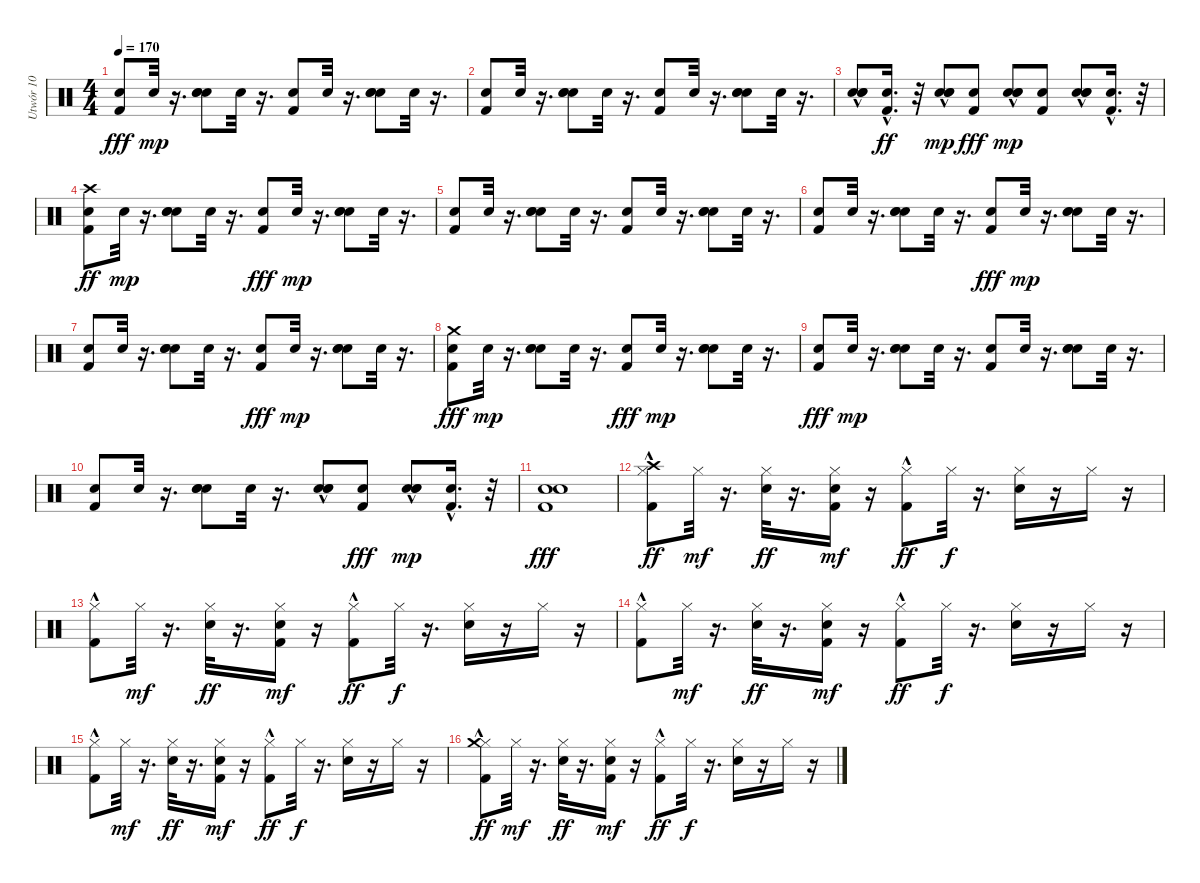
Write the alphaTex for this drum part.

\track ("Utwór 10" "Utwór 10") {instrument percussion}
\staff {score}
\articulation defaults
\ts (4 4)
\tempo 170
\clef neutral
\ks c
("Snare (hit) 2" "Kick (hit) 2").8{dy fff} "Snare (hit) 2".32{dy mp} r.16{d} ("Snare (hit) 2" "Snare (hit) 2" "Snare (hit) 2").8 "Snare (hit) 2".32 r.16{d} ("Kick (hit) 2" "Snare (hit) 2").8 "Snare (hit) 2".32 r.16{d} ("Snare (hit) 2" "Snare (hit) 2" "Snare (hit) 2").8 "Snare (hit) 2".32 r.16{d} |
("Kick (hit) 2" "Snare (hit) 2").8 "Snare (hit) 2".32 r.16{d} ("Snare (hit) 2" "Snare (hit) 2" "Snare (hit) 2").8 "Snare (hit) 2".32 r.16{d} ("Kick (hit) 2" "Snare (hit) 2").8 "Snare (hit) 2".32 r.16{d} ("Snare (hit) 2" "Snare (hit) 2" "Snare (hit) 2").8 "Snare (hit) 2".32 r.16{d} |
("Snare (hit) 2" "Snare (hit) 2" "Snare (hit) 2"{hac}).8 ("Snare (hit) 2" "Kick (hit) 2"{hac}).16{d dy ff} r.32 ("Snare (hit) 2" "Snare (hit) 2" "Snare (hit) 2"{hac}).8{dy mp} ("Snare (hit) 2" "Kick (hit) 2").8{dy fff} ("Snare (hit) 2" "Snare (hit) 2" "Snare (hit) 2"{hac}).8{dy mp} ("Kick (hit) 2" "Snare (hit) 2").8 ("Snare (hit) 2" "Snare (hit) 2" "Snare (hit) 2"{hac}).8 ("Kick (hit) 2"{hac} "Snare (hit) 2").16{d} r.32 |
("Snare (hit) 2" "Kick (hit) 2" "Crash high (hit)").8{dy ff} "Snare (hit) 2".32{dy mp} r.16{d} ("Snare (hit) 2" "Snare (hit) 2" "Snare (hit) 2").8 "Snare (hit) 2".32 r.16{d} ("Snare (hit) 2" "Kick (hit) 2").8{dy fff} "Snare (hit) 2".32{dy mp} r.16{d} ("Snare (hit) 2" "Snare (hit) 2" "Snare (hit) 2").8 "Snare (hit) 2".32 r.16{d} |
("Kick (hit) 2" "Snare (hit) 2").8 "Snare (hit) 2".32 r.16{d} ("Snare (hit) 2" "Snare (hit) 2" "Snare (hit) 2").8 "Snare (hit) 2".32 r.16{d} ("Kick (hit) 2" "Snare (hit) 2").8 "Snare (hit) 2".32 r.16{d} ("Snare (hit) 2" "Snare (hit) 2" "Snare (hit) 2").8 "Snare (hit) 2".32 r.16{d} |
("Kick (hit) 2" "Snare (hit) 2").8 "Snare (hit) 2".32 r.16{d} ("Snare (hit) 2" "Snare (hit) 2" "Snare (hit) 2").8 "Snare (hit) 2".32 r.16{d} ("Snare (hit) 2" "Kick (hit) 2").8{dy fff} "Snare (hit) 2".32{dy mp} r.16{d} ("Snare (hit) 2" "Snare (hit) 2" "Snare (hit) 2").8 "Snare (hit) 2".32 r.16{d} |
("Kick (hit) 2" "Snare (hit) 2").8 "Snare (hit) 2".32 r.16{d} ("Snare (hit) 2" "Snare (hit) 2" "Snare (hit) 2").8 "Snare (hit) 2".32 r.16{d} ("Snare (hit) 2" "Kick (hit) 2").8{dy fff} "Snare (hit) 2".32{dy mp} r.16{d} ("Snare (hit) 2" "Snare (hit) 2" "Snare (hit) 2").8 "Snare (hit) 2".32 r.16{d} |
("Crash medium (hit)" "Snare (hit) 2" "Kick (hit) 2").8{dy fff} "Snare (hit) 2".32{dy mp} r.16{d} ("Snare (hit) 2" "Snare (hit) 2" "Snare (hit) 2").8 "Snare (hit) 2".32 r.16{d} ("Snare (hit) 2" "Kick (hit) 2").8{dy fff} "Snare (hit) 2".32{dy mp} r.16{d} ("Snare (hit) 2" "Snare (hit) 2" "Snare (hit) 2").8 "Snare (hit) 2".32 r.16{d} |
("Snare (hit) 2" "Kick (hit) 2").8{dy fff} "Snare (hit) 2".32{dy mp} r.16{d} ("Snare (hit) 2" "Snare (hit) 2" "Snare (hit) 2").8 "Snare (hit) 2".32 r.16{d} ("Kick (hit) 2" "Snare (hit) 2").8 "Snare (hit) 2".32 r.16{d} ("Snare (hit) 2" "Snare (hit) 2" "Snare (hit) 2").8 "Snare (hit) 2".32 r.16{d} |
("Kick (hit) 2" "Snare (hit) 2").8 "Snare (hit) 2".32 r.16{d} ("Snare (hit) 2" "Snare (hit) 2" "Snare (hit) 2").8 "Snare (hit) 2".32 r.16{d} ("Snare (hit) 2" "Snare (hit) 2" "Snare (hit) 2"{hac}).8 ("Snare (hit) 2" "Kick (hit) 2").8{dy fff} ("Snare (hit) 2" "Snare (hit) 2" "Snare (hit) 2"{hac}).8{dy mp} ("Kick (hit) 2"{hac} "Snare (hit) 2").16{d} r.32 |
("Kick (hit) 2" "Snare (hit) 2" "Snare (hit) 2").1{dy fff} |
("Hi-Hat (closed)" "Crash high (hit)" "Kick (hit) 2"{hac}).8{dy ff} "Hi-Hat (closed)".32{dy mf} r.16{d} ("Electric Snare (hit)" "Hi-Hat (closed)").32{dy ff} r.16{d} ("Electric Snare (hit)" "Kick (hit) 2" "Hi-Hat (closed)").16{dy mf} r.16 ("Hi-Hat (closed)" "Kick (hit) 2"{hac}).8{dy ff} "Hi-Hat (closed)".32{dy f} r.16{d} ("Electric Snare (hit)" "Hi-Hat (closed)").16 r.16 "Hi-Hat (closed)".16 r.16 |
("Hi-Hat (closed)" "Kick (hit) 2"{hac}).8 "Hi-Hat (closed)".32{dy mf} r.16{d} ("Electric Snare (hit)" "Hi-Hat (closed)").32{dy ff} r.16{d} ("Electric Snare (hit)" "Hi-Hat (closed)" "Kick (hit) 2").16{dy mf} r.16 ("Hi-Hat (closed)" "Kick (hit) 2"{hac}).8{dy ff} "Hi-Hat (closed)".32{dy f} r.16{d} ("Electric Snare (hit)" "Hi-Hat (closed)").16 r.16 "Hi-Hat (closed)".16 r.16 |
("Hi-Hat (closed)" "Kick (hit) 2"{hac}).8 "Hi-Hat (closed)".32{dy mf} r.16{d} ("Hi-Hat (closed)" "Electric Snare (hit)").32{dy ff} r.16{d} ("Kick (hit) 2" "Electric Snare (hit)" "Hi-Hat (closed)").16{dy mf} r.16 ("Kick (hit) 2"{hac} "Hi-Hat (closed)").8{dy ff} "Hi-Hat (closed)".32{dy f} r.16{d} ("Hi-Hat (closed)" "Electric Snare (hit)").16 r.16 "Hi-Hat (closed)".16 r.16 |
("Hi-Hat (closed)" "Kick (hit) 2"{hac}).8 "Hi-Hat (closed)".32{dy mf} r.16{d} ("Electric Snare (hit)" "Hi-Hat (closed)").32{dy ff} r.16{d} ("Hi-Hat (closed)" "Electric Snare (hit)" "Kick (hit) 2").16{dy mf} r.16 ("Hi-Hat (closed)" "Kick (hit) 2"{hac}).8{dy ff} "Hi-Hat (closed)".32{dy f} r.16{d} ("Hi-Hat (closed)" "Electric Snare (hit)").16 r.16 "Hi-Hat (closed)".16 r.16 |
("Kick (hit) 2"{hac} "Hi-Hat (closed)" "Crash medium (hit)").8{dy ff} "Hi-Hat (closed)".32{dy mf} r.16{d} ("Electric Snare (hit)" "Hi-Hat (closed)").32{dy ff} r.16{d} ("Electric Snare (hit)" "Hi-Hat (closed)" "Kick (hit) 2").16{dy mf} r.16 ("Hi-Hat (closed)" "Kick (hit) 2"{hac}).8{dy ff} "Hi-Hat (closed)".32{dy f} r.16{d} ("Electric Snare (hit)" "Hi-Hat (closed)").16 r.16 "Hi-Hat (closed)".16 r.16
